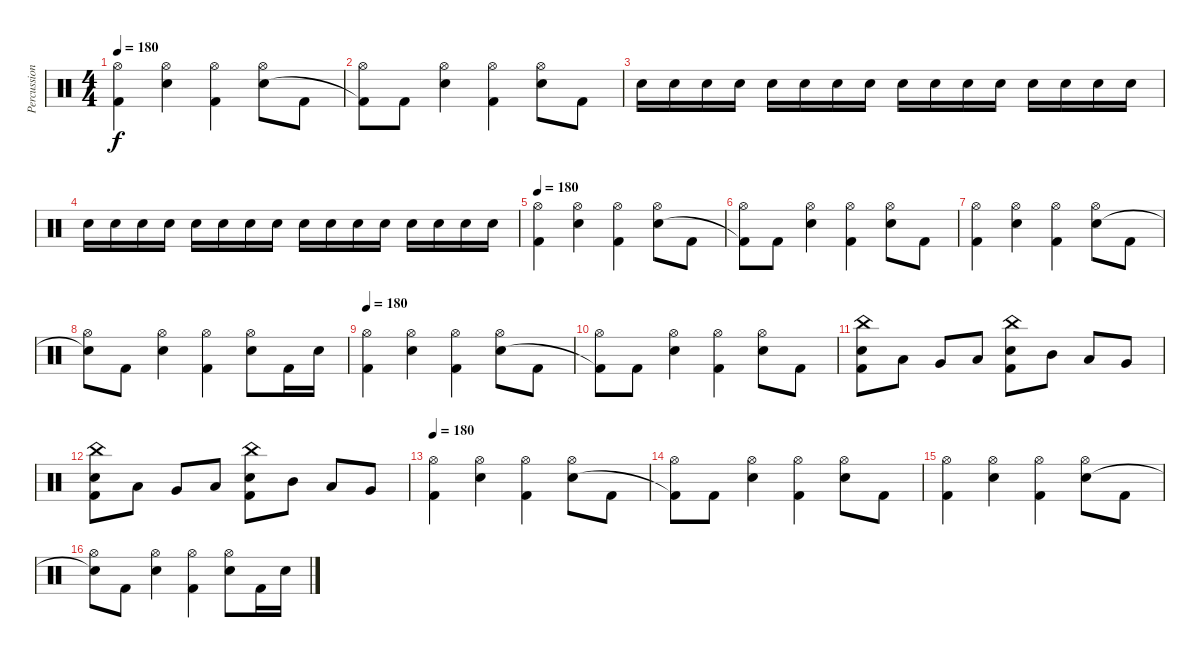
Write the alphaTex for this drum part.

\track ("Percussions" "Percussion") {instrument percussion}
\staff {score}
\articulation defaults
\ts (4 4)
\tempo 180
\clef neutral
\ks c
("Hi-Hat (open)" "Kick (hit) 2").4{dy f} ("Hi-Hat (open)" "Electric Snare (hit)").4 ("Hi-Hat (open)" "Kick (hit) 2").4 ("Hi-Hat (open)" "Electric Snare (hit)").8 "Kick (hit) 2".8 |
("Hi-Hat (open)" "Kick (hit) 2"{t}).8 "Kick (hit) 2".8 ("Hi-Hat (open)" "Electric Snare (hit)").4 ("Hi-Hat (open)" "Kick (hit) 2").4 ("Hi-Hat (open)" "Electric Snare (hit)").8 "Kick (hit) 2".8 |
"Electric Snare (hit)".16 "Electric Snare (hit)".16 "Electric Snare (hit)".16 "Electric Snare (hit)".16 "Electric Snare (hit)".16 "Electric Snare (hit)".16 "Electric Snare (hit)".16 "Electric Snare (hit)".16 "Electric Snare (hit)".16 "Electric Snare (hit)".16 "Electric Snare (hit)".16 "Electric Snare (hit)".16 "Electric Snare (hit)".16 "Electric Snare (hit)".16 "Electric Snare (hit)".16 "Electric Snare (hit)".16 |
"Electric Snare (hit)".16 "Electric Snare (hit)".16 "Electric Snare (hit)".16 "Electric Snare (hit)".16 "Electric Snare (hit)".16 "Electric Snare (hit)".16 "Electric Snare (hit)".16 "Electric Snare (hit)".16 "Electric Snare (hit)".16 "Electric Snare (hit)".16 "Electric Snare (hit)".16 "Electric Snare (hit)".16 "Electric Snare (hit)".16 "Electric Snare (hit)".16 "Electric Snare (hit)".16 "Electric Snare (hit)".16 |
\tempo 180
("Hi-Hat (open)" "Kick (hit) 2").4 ("Hi-Hat (open)" "Electric Snare (hit)").4 ("Hi-Hat (open)" "Kick (hit) 2").4 ("Hi-Hat (open)" "Electric Snare (hit)").8 "Kick (hit) 2".8 |
("Hi-Hat (open)" "Kick (hit) 2"{t}).8 "Kick (hit) 2".8 ("Hi-Hat (open)" "Electric Snare (hit)").4 ("Hi-Hat (open)" "Kick (hit) 2").4 ("Hi-Hat (open)" "Electric Snare (hit)").8 "Kick (hit) 2".8 |
("Hi-Hat (open)" "Kick (hit) 2").4 ("Hi-Hat (open)" "Electric Snare (hit)").4 ("Hi-Hat (open)" "Kick (hit) 2").4 ("Hi-Hat (open)" "Electric Snare (hit)").8 "Kick (hit) 2".8 |
("Hi-Hat (open)" "Snare (hit)"{t}).8 "Kick (hit) 2".8 ("Hi-Hat (open)" "Electric Snare (hit)").4 ("Hi-Hat (open)" "Kick (hit) 2").4 ("Hi-Hat (open)" "Electric Snare (hit)").8 "Kick (hit) 2".16 "Electric Snare (hit)".16 |
\tempo 180
("Hi-Hat (open)" "Kick (hit) 2").4 ("Hi-Hat (open)" "Electric Snare (hit)").4 ("Hi-Hat (open)" "Kick (hit) 2").4 ("Hi-Hat (open)" "Electric Snare (hit)").8 "Kick (hit) 2".8 |
("Hi-Hat (open)" "Kick (hit) 2"{t}).8 "Kick (hit) 2".8 ("Hi-Hat (open)" "Electric Snare (hit)").4 ("Hi-Hat (open)" "Kick (hit) 2").4 ("Hi-Hat (open)" "Electric Snare (hit)").8 "Kick (hit) 2".8 |
("China (hit)" "Electric Snare (hit)" "Kick (hit) 2").8 "Low Tom (hit)".8 "Very Low Tom (hit)".8 "Low Floor Tom (hit)".8 ("China (hit)" "Electric Snare (hit)" "Kick (hit) 2").8 "Mid Tom (hit)".8 "Low Tom (hit)".8 "Very Low Tom (hit)".8 |
("China (hit)" "Electric Snare (hit)" "Kick (hit) 2").8 "Low Tom (hit)".8 "Very Low Tom (hit)".8 "Low Floor Tom (hit)".8 ("China (hit)" "Electric Snare (hit)" "Kick (hit) 2").8 "Mid Tom (hit)".8 "Low Tom (hit)".8 "Very Low Tom (hit)".8 |
\tempo 180
("Hi-Hat (open)" "Kick (hit) 2").4 ("Hi-Hat (open)" "Electric Snare (hit)").4 ("Hi-Hat (open)" "Kick (hit) 2").4 ("Hi-Hat (open)" "Electric Snare (hit)").8 "Kick (hit) 2".8 |
("Hi-Hat (open)" "Kick (hit) 2"{t}).8 "Kick (hit) 2".8 ("Hi-Hat (open)" "Electric Snare (hit)").4 ("Hi-Hat (open)" "Kick (hit) 2").4 ("Hi-Hat (open)" "Electric Snare (hit)").8 "Kick (hit) 2".8 |
("Hi-Hat (open)" "Kick (hit) 2").4 ("Hi-Hat (open)" "Electric Snare (hit)").4 ("Hi-Hat (open)" "Kick (hit) 2").4 ("Hi-Hat (open)" "Electric Snare (hit)").8 "Kick (hit) 2".8 |
("Hi-Hat (open)" "Snare (hit)"{t}).8 "Kick (hit) 2".8 ("Hi-Hat (open)" "Electric Snare (hit)").4 ("Hi-Hat (open)" "Kick (hit) 2").4 ("Hi-Hat (open)" "Electric Snare (hit)").8 "Kick (hit) 2".16 "Electric Snare (hit)".16
